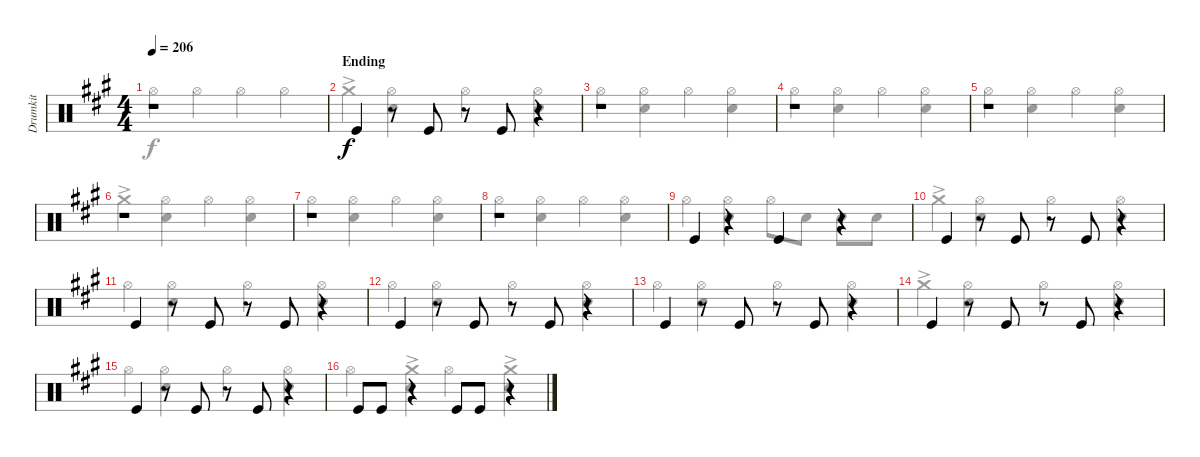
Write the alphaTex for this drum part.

\track ("Drumkit" "Drumkit") {instrument percussion}
\staff {score}
\articulation defaults
\voice
\ts (4 4)
\tempo 206
\clef neutral
\ks a
r.1{dy f} |
\section ("" "Ending")
"Kick (hit)".4 r.8 "Kick (hit)".8 r.8 "Kick (hit)".8 r.4 |
r.1 |
r.1 |
r.1 |
r.1 |
r.1 |
r.1 |
"Kick (hit)".4 r.4 "Kick (hit)".4 r.4 |
"Kick (hit)".4 r.8 "Kick (hit)".8 r.8 "Kick (hit)".8 r.4 |
"Kick (hit)".4 r.8 "Kick (hit)".8 r.8 "Kick (hit)".8 r.4 |
"Kick (hit)".4 r.8 "Kick (hit)".8 r.8 "Kick (hit)".8 r.4 |
"Kick (hit)".4 r.8 "Kick (hit)".8 r.8 "Kick (hit)".8 r.4 |
"Kick (hit)".4 r.8 "Kick (hit)".8 r.8 "Kick (hit)".8 r.4 |
"Kick (hit)".4 r.8 "Kick (hit)".8 r.8 "Kick (hit)".8 r.4 |
"Kick (hit)".8 "Kick (hit)".8 r.4 "Kick (hit)".8 "Kick (hit)".8 r.4
\voice
\clef neutral
\ottava regular
\simile none
\ks a "Hi-Hat (open)".4{dy f} "Hi-Hat (open)".4 "Hi-Hat (open)".4 "Hi-Hat (open)".4
|
"Crash medium (hit)"{ac}.4 ("Hi-Hat (open)" "Snare (hit) 2").4 "Hi-Hat (open)".4 ("Hi-Hat (open)" "Snare (hit) 2").4 |
"Hi-Hat (open)".4 ("Hi-Hat (open)" "Snare (hit) 2").4 "Hi-Hat (open)".4 ("Hi-Hat (open)" "Snare (hit) 2").4 |
"Hi-Hat (open)".4 ("Hi-Hat (open)" "Snare (hit) 2").4 "Hi-Hat (open)".4 ("Hi-Hat (open)" "Snare (hit) 2").4 |
"Hi-Hat (open)".4 ("Hi-Hat (open)" "Snare (hit) 2").4 "Hi-Hat (open)".4 ("Hi-Hat (open)" "Snare (hit) 2").4 |
"Crash medium (hit)"{ac}.4 ("Hi-Hat (open)" "Snare (hit) 2").4 "Hi-Hat (open)".4 ("Hi-Hat (open)" "Snare (hit) 2").4 |
"Hi-Hat (open)".4 ("Hi-Hat (open)" "Snare (hit) 2").4 "Hi-Hat (open)".4 ("Hi-Hat (open)" "Snare (hit) 2").4 |
"Hi-Hat (open)".4 ("Hi-Hat (open)" "Snare (hit) 2").4 "Hi-Hat (open)".4 ("Hi-Hat (open)" "Snare (hit) 2").4 |
"Hi-Hat (open)".4 ("Hi-Hat (open)" "Snare (hit) 2").4 "Hi-Hat (open)".8 "Snare (hit) 2".8 "Snare (hit) 2".8 "Snare (hit) 2".8 |
"Crash medium (hit)"{ac}.4 ("Hi-Hat (open)" "Snare (hit) 2").4 "Hi-Hat (open)".4 ("Hi-Hat (open)" "Snare (hit) 2").4 |
"Hi-Hat (open)".4 ("Hi-Hat (open)" "Snare (hit) 2").4 "Hi-Hat (open)".4 ("Hi-Hat (open)" "Snare (hit) 2").4 |
"Hi-Hat (open)".4 ("Hi-Hat (open)" "Snare (hit) 2").4 "Hi-Hat (open)".4 ("Hi-Hat (open)" "Snare (hit) 2").4 |
"Hi-Hat (open)".4 ("Hi-Hat (open)" "Snare (hit) 2").4 "Hi-Hat (open)".4 ("Hi-Hat (open)" "Snare (hit) 2").4 |
"Crash medium (hit)"{ac}.4 ("Hi-Hat (open)" "Snare (hit) 2").4 "Hi-Hat (open)".4 ("Hi-Hat (open)" "Snare (hit) 2").4 |
"Hi-Hat (open)".4 ("Hi-Hat (open)" "Snare (hit) 2").4 "Hi-Hat (open)".4 ("Hi-Hat (open)" "Snare (hit) 2").4 |
"Hi-Hat (open)".4 ("Crash medium (hit)"{ac} "Snare (hit) 2").4 "Hi-Hat (open)".4 ("Crash medium (hit)"{ac} "Snare (hit) 2").4
